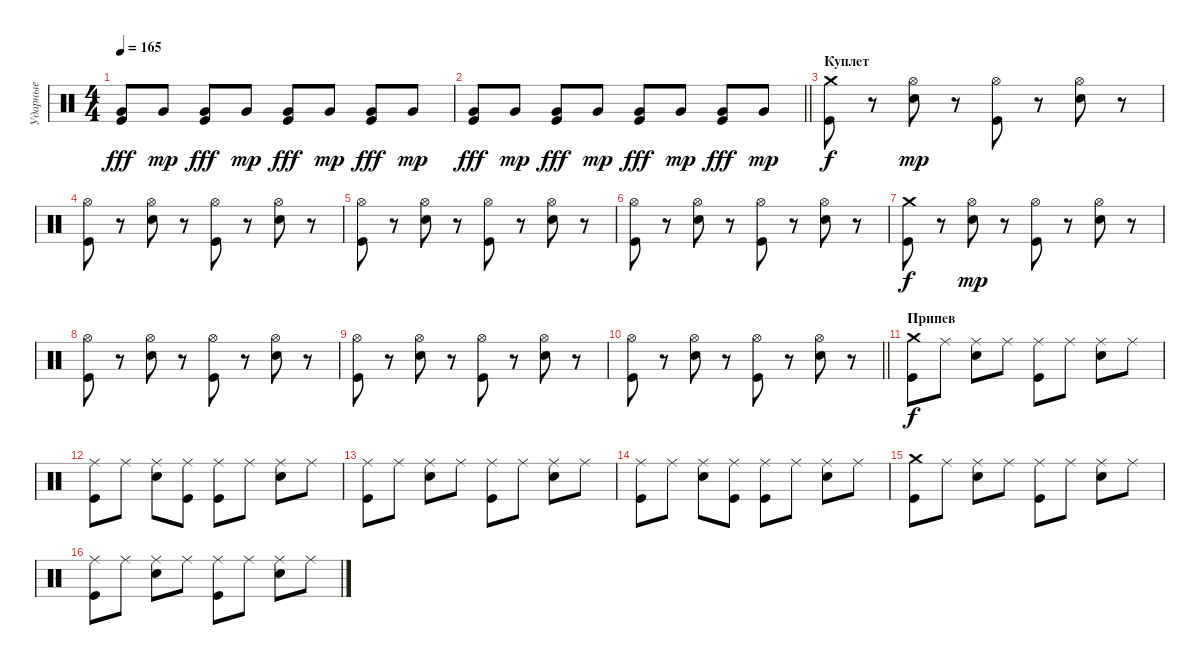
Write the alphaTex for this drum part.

\track ("Ударные" "Ударные") {instrument percussion}
\staff {score}
\articulation defaults
\ts (4 4)
\tempo 165
\clef neutral
\ks c
("Very Low Tom (hit)" "Kick (hit)").8{dy fff} "Very Low Tom (hit)".8{dy mp} ("Very Low Tom (hit)" "Kick (hit)").8{dy fff} "Very Low Tom (hit)".8{dy mp} ("Very Low Tom (hit)" "Kick (hit)").8{dy fff} "Very Low Tom (hit)".8{dy mp} ("Very Low Tom (hit)" "Kick (hit)").8{dy fff} "Very Low Tom (hit)".8{dy mp} |
\barLineRight lightlight
("Very Low Tom (hit)" "Kick (hit)").8{dy fff} "Very Low Tom (hit)".8{dy mp} ("Very Low Tom (hit)" "Kick (hit)").8{dy fff} "Very Low Tom (hit)".8{dy mp} ("Very Low Tom (hit)" "Kick (hit)").8{dy fff} "Very Low Tom (hit)".8{dy mp} ("Very Low Tom (hit)" "Kick (hit)").8{dy fff} "Very Low Tom (hit)".8{dy mp} |
\section ("" "Куплет")
("Crash medium (hit)" "Kick (hit)").8{dy f} r.8 ("Hi-Hat (open)" "Electric Snare (hit)").8{dy mp} r.8 ("Hi-Hat (open)" "Kick (hit)").8 r.8 ("Hi-Hat (open)" "Electric Snare (hit)").8 r.8 |
("Hi-Hat (open)" "Kick (hit)").8 r.8 ("Hi-Hat (open)" "Electric Snare (hit)").8 r.8 ("Hi-Hat (open)" "Kick (hit)").8 r.8 ("Hi-Hat (open)" "Electric Snare (hit)").8 r.8 |
("Hi-Hat (open)" "Kick (hit)").8 r.8 ("Hi-Hat (open)" "Electric Snare (hit)").8 r.8 ("Hi-Hat (open)" "Kick (hit)").8 r.8 ("Hi-Hat (open)" "Electric Snare (hit)").8 r.8 |
("Hi-Hat (open)" "Kick (hit)").8 r.8 ("Hi-Hat (open)" "Electric Snare (hit)").8 r.8 ("Hi-Hat (open)" "Kick (hit)").8 r.8 ("Hi-Hat (open)" "Electric Snare (hit)").8 r.8 |
("Crash medium (hit)" "Kick (hit)").8{dy f} r.8 ("Hi-Hat (open)" "Electric Snare (hit)").8{dy mp} r.8 ("Hi-Hat (open)" "Kick (hit)").8 r.8 ("Hi-Hat (open)" "Electric Snare (hit)").8 r.8 |
("Hi-Hat (open)" "Kick (hit)").8 r.8 ("Hi-Hat (open)" "Electric Snare (hit)").8 r.8 ("Hi-Hat (open)" "Kick (hit)").8 r.8 ("Hi-Hat (open)" "Electric Snare (hit)").8 r.8 |
("Hi-Hat (open)" "Kick (hit)").8 r.8 ("Hi-Hat (open)" "Electric Snare (hit)").8 r.8 ("Hi-Hat (open)" "Kick (hit)").8 r.8 ("Hi-Hat (open)" "Electric Snare (hit)").8 r.8 |
\barLineRight lightlight
("Hi-Hat (open)" "Kick (hit)").8 r.8 ("Hi-Hat (open)" "Electric Snare (hit)").8 r.8 ("Hi-Hat (open)" "Kick (hit)").8 r.8 ("Hi-Hat (open)" "Electric Snare (hit)").8 r.8 |
\section ("" "Припев")
("Crash medium (hit)" "Kick (hit)").8{dy f} "Ride (middle)".8 ("Ride (middle)" "Electric Snare (hit)").8 "Ride (middle)".8 ("Ride (middle)" "Kick (hit)").8 "Ride (middle)".8 ("Ride (middle)" "Electric Snare (hit)").8 "Ride (middle)".8 |
("Ride (middle)" "Kick (hit)").8 "Ride (middle)".8 ("Ride (middle)" "Electric Snare (hit)").8 ("Ride (middle)" "Kick (hit)").8 ("Ride (middle)" "Kick (hit)").8 "Ride (middle)".8 ("Ride (middle)" "Electric Snare (hit)").8 "Ride (middle)".8 |
("Ride (middle)" "Kick (hit)").8 "Ride (middle)".8 ("Ride (middle)" "Electric Snare (hit)").8 "Ride (middle)".8 ("Ride (middle)" "Kick (hit)").8 "Ride (middle)".8 ("Ride (middle)" "Electric Snare (hit)").8 "Ride (middle)".8 |
("Ride (middle)" "Kick (hit)").8 "Ride (middle)".8 ("Ride (middle)" "Electric Snare (hit)").8 ("Ride (middle)" "Kick (hit)").8 ("Ride (middle)" "Kick (hit)").8 "Ride (middle)".8 ("Ride (middle)" "Electric Snare (hit)").8 "Ride (middle)".8 |
("Crash medium (hit)" "Kick (hit)").8 "Ride (middle)".8 ("Ride (middle)" "Electric Snare (hit)").8 "Ride (middle)".8 ("Ride (middle)" "Kick (hit)").8 "Ride (middle)".8 ("Ride (middle)" "Electric Snare (hit)").8 "Ride (middle)".8 |
("Ride (middle)" "Kick (hit)").8 "Ride (middle)".8 ("Ride (middle)" "Electric Snare (hit)").8 "Ride (middle)".8 ("Ride (middle)" "Kick (hit)").8 "Ride (middle)".8 ("Ride (middle)" "Electric Snare (hit)").8 "Ride (middle)".8
